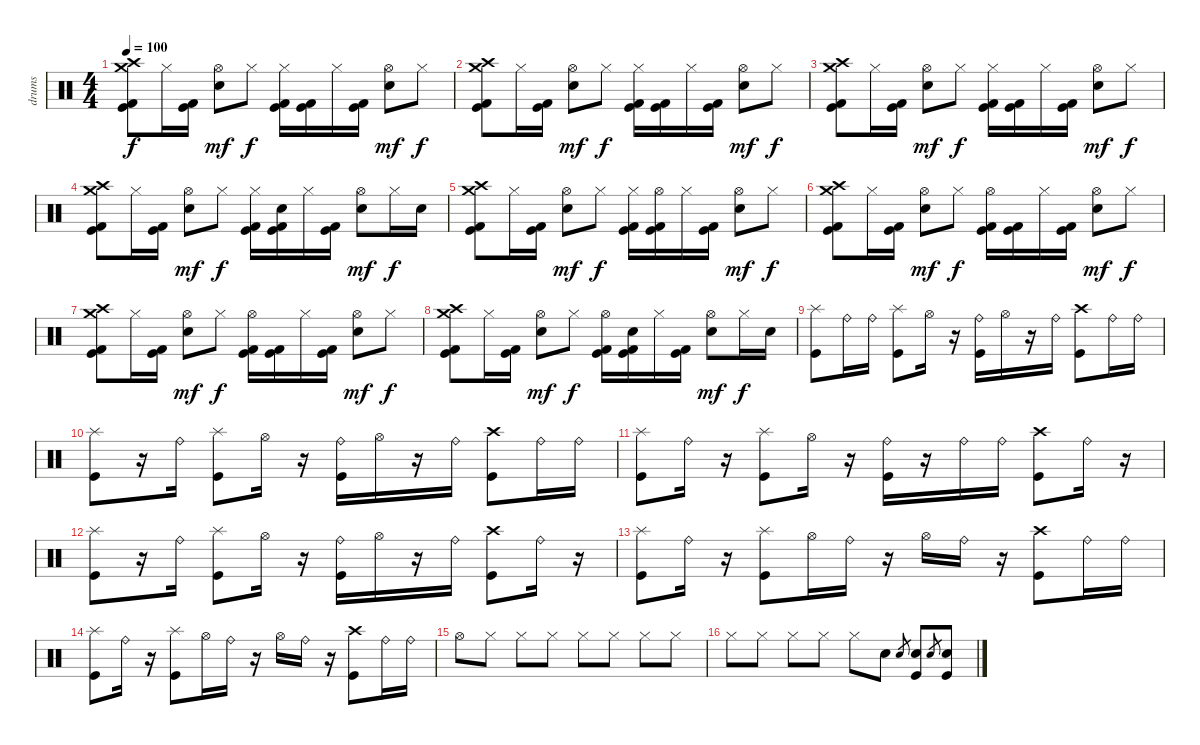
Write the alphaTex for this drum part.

\track ("drums" "drums") {instrument percussion}
\staff {score}
\articulation defaults
\ts (4 4)
\tempo 100
\clef neutral
\ks c
("Crash high (hit)" "Crash medium (hit)" "Kick (hit) 2" "Kick (hit)").8{dy f} "Hi-Hat (closed)".16 ("Kick (hit) 2" "Kick (hit)").16 ("Hi-Hat (open)" "Electric Snare (hit)").8{dy mf} "Hi-Hat (closed)".8{dy f} ("Hi-Hat (closed)" "Kick (hit) 2" "Kick (hit)").16 ("Kick (hit) 2" "Kick (hit)").16 "Hi-Hat (closed)".16 ("Kick (hit) 2" "Kick (hit)").16 ("Hi-Hat (open)" "Electric Snare (hit)").8{dy mf} "Hi-Hat (closed)".8{dy f} |
("Crash high (hit)" "Crash medium (hit)" "Kick (hit) 2" "Kick (hit)").8 "Hi-Hat (closed)".16 ("Kick (hit) 2" "Kick (hit)").16 ("Hi-Hat (open)" "Electric Snare (hit)").8{dy mf} "Hi-Hat (closed)".8{dy f} ("Hi-Hat (closed)" "Kick (hit) 2" "Kick (hit)").16 ("Kick (hit) 2" "Kick (hit)").16 "Hi-Hat (closed)".16 ("Kick (hit) 2" "Kick (hit)").16 ("Hi-Hat (open)" "Electric Snare (hit)").8{dy mf} "Hi-Hat (closed)".8{dy f} |
("Crash high (hit)" "Crash medium (hit)" "Kick (hit) 2" "Kick (hit)").8 "Hi-Hat (closed)".16 ("Kick (hit) 2" "Kick (hit)").16 ("Hi-Hat (open)" "Electric Snare (hit)").8{dy mf} "Hi-Hat (closed)".8{dy f} ("Hi-Hat (closed)" "Kick (hit) 2" "Kick (hit)").16 ("Kick (hit) 2" "Kick (hit)").16 "Hi-Hat (closed)".16 ("Kick (hit) 2" "Kick (hit)").16 ("Hi-Hat (open)" "Electric Snare (hit)").8{dy mf} "Hi-Hat (closed)".8{dy f} |
("Crash high (hit)" "Crash medium (hit)" "Kick (hit) 2" "Kick (hit)").8 "Hi-Hat (closed)".16 ("Kick (hit) 2" "Kick (hit)").16 ("Hi-Hat (open)" "Electric Snare (hit)").8{dy mf} "Hi-Hat (closed)".8{dy f} ("Hi-Hat (closed)" "Kick (hit) 2" "Kick (hit)").16 ("Electric Snare (hit)" "Kick (hit) 2" "Kick (hit)").16 "Hi-Hat (closed)".16 ("Kick (hit) 2" "Kick (hit)").16 ("Hi-Hat (open)" "Electric Snare (hit)").8{dy mf} "Hi-Hat (closed)".16{dy f} "Electric Snare (hit)".16 |
("Crash high (hit)" "Crash medium (hit)" "Kick (hit) 2" "Kick (hit)").8 "Hi-Hat (closed)".16 ("Kick (hit) 2" "Kick (hit)").16 ("Hi-Hat (open)" "Electric Snare (hit)").8{dy mf} "Hi-Hat (closed)".8{dy f} ("Hi-Hat (closed)" "Kick (hit) 2" "Kick (hit)").16 ("Hi-Hat (open)" "Kick (hit) 2" "Kick (hit)").16 "Hi-Hat (closed)".16 ("Kick (hit) 2" "Kick (hit)").16 ("Hi-Hat (open)" "Electric Snare (hit)").8{dy mf} "Hi-Hat (closed)".8{dy f} |
("Crash high (hit)" "Crash medium (hit)" "Kick (hit) 2" "Kick (hit)").8 "Hi-Hat (closed)".16 ("Kick (hit) 2" "Kick (hit)").16 ("Hi-Hat (open)" "Electric Snare (hit)").8{dy mf} "Hi-Hat (closed)".8{dy f} ("Hi-Hat (open)" "Kick (hit) 2" "Kick (hit)").16 ("Kick (hit) 2" "Kick (hit)").16 "Hi-Hat (closed)".16 ("Kick (hit) 2" "Kick (hit)").16 ("Hi-Hat (open)" "Electric Snare (hit)").8{dy mf} "Hi-Hat (closed)".8{dy f} |
("Crash high (hit)" "Crash medium (hit)" "Kick (hit) 2" "Kick (hit)").8 "Hi-Hat (closed)".16 ("Kick (hit) 2" "Kick (hit)").16 ("Hi-Hat (open)" "Electric Snare (hit)").8{dy mf} "Hi-Hat (closed)".8{dy f} ("Hi-Hat (open)" "Kick (hit) 2" "Kick (hit)").16 ("Kick (hit) 2" "Kick (hit)").16 "Hi-Hat (closed)".16 ("Kick (hit) 2" "Kick (hit)").16 ("Hi-Hat (open)" "Electric Snare (hit)").8{dy mf} "Hi-Hat (closed)".8{dy f} |
("Crash high (hit)" "Crash medium (hit)" "Kick (hit) 2" "Kick (hit)").8 "Hi-Hat (closed)".16 ("Kick (hit) 2" "Kick (hit)").16 ("Hi-Hat (open)" "Electric Snare (hit)").8{dy mf} "Hi-Hat (closed)".8{dy f} ("Hi-Hat (open)" "Kick (hit) 2" "Kick (hit)").16 ("Electric Snare (hit)" "Kick (hit) 2" "Kick (hit)").16 "Hi-Hat (closed)".16 ("Kick (hit) 2" "Kick (hit)").16 ("Hi-Hat (open)" "Electric Snare (hit)").8{dy mf} "Hi-Hat (closed)".16{dy f} "Electric Snare (hit)".16 |
("Splash (hit)" "Kick (hit)").8 "Ride (bell)".16 "Ride (bell)".16 ("Splash (hit)" "Kick (hit)").8 "Hi-Hat (open)".16 r.16 ("Ride (bell)" "Kick (hit)").16 "Hi-Hat (open)".16 r.16 "Ride (bell)".16 ("Crash high (hit)" "Kick (hit)").8 "Ride (bell)".16 "Ride (bell)".16 |
("Splash (hit)" "Kick (hit)").8 r.16 "Ride (bell)".16 ("Splash (hit)" "Kick (hit)").8 "Hi-Hat (open)".16 r.16 ("Ride (bell)" "Kick (hit)").16 "Hi-Hat (open)".16 r.16 "Ride (bell)".16 ("Crash high (hit)" "Kick (hit)").8 "Ride (bell)".16 "Ride (bell)".16 |
("Splash (hit)" "Kick (hit)").8 "Ride (bell)".16 r.16 ("Splash (hit)" "Kick (hit)").8 "Hi-Hat (open)".16 r.16 ("Ride (bell)" "Kick (hit)").16 r.16 "Ride (bell)".16 "Ride (bell)".16 ("Crash high (hit)" "Kick (hit)").8 "Ride (bell)".16 r.16 |
("Splash (hit)" "Kick (hit)").8 r.16 "Ride (bell)".16 ("Splash (hit)" "Kick (hit)").8 "Hi-Hat (open)".16 r.16 ("Ride (bell)" "Kick (hit)").16 "Hi-Hat (open)".16 r.16 "Ride (bell)".16 ("Crash high (hit)" "Kick (hit)").8 "Ride (bell)".16 r.16 |
("Splash (hit)" "Kick (hit)").8 "Ride (bell)".16 r.16 ("Splash (hit)" "Kick (hit)").8 "Hi-Hat (open)".16 "Ride (bell)".16 r.16 "Hi-Hat (open)".16 "Ride (bell)".16 r.16 ("Crash high (hit)" "Kick (hit)").8 "Ride (bell)".16 "Ride (bell)".16 |
("Splash (hit)" "Kick (hit)").8 "Ride (bell)".16 r.16 ("Splash (hit)" "Kick (hit)").8 "Hi-Hat (open)".16 "Ride (bell)".16 r.16 "Hi-Hat (open)".16 "Ride (bell)".16 r.16 ("Crash high (hit)" "Kick (hit)").8 "Ride (bell)".16 "Ride (bell)".16 |
"Hi-Hat (open)".8 "Hi-Hat (closed)".8 "Hi-Hat (closed)".8 "Hi-Hat (closed)".8 "Hi-Hat (closed)".8 "Hi-Hat (closed)".8 "Hi-Hat (closed)".8 "Hi-Hat (closed)".8 |
"Hi-Hat (closed)".8 "Hi-Hat (closed)".8 "Hi-Hat (closed)".8 "Hi-Hat (closed)".8 "Hi-Hat (closed)".8 "Snare (hit)".8 "Electric Snare (hit)".8{gr} ("Electric Snare (hit)" "Kick (hit)").8 "Electric Snare (hit)".8{gr} ("Electric Snare (hit)" "Kick (hit)").8
